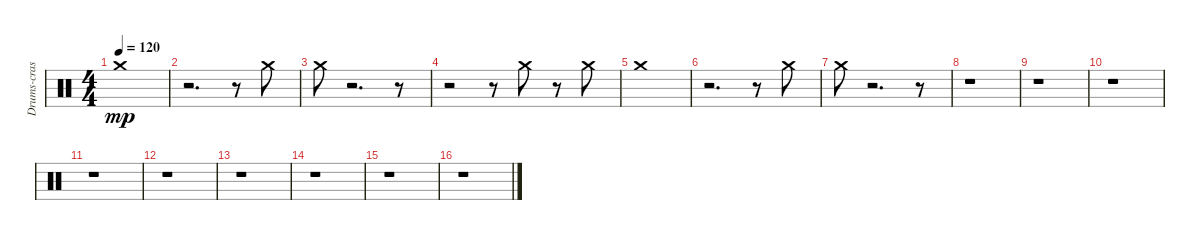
\track ("Drums-crash cymbal 2" "Drums-cras") {instrument percussion}
\staff {score}
\articulation defaults
\ts (4 4)
\tempo 120
\clef neutral
\ks c "Crash medium (hit)".1{dy mp}
|
r.2{d} r.8 "Crash medium (hit)".8 |
"Crash medium (hit)".8 r.2{d} r.8 |
r.2 r.8 "Crash medium (hit)".8 r.8 "Crash medium (hit)".8 |
"Crash medium (hit)".1 |
r.2{d} r.8 "Crash medium (hit)".8 |
"Crash medium (hit)".8 r.2{d} r.8 |
r.1 |
r.1 |
r.1 |
r.1 |
r.1 |
r.1 |
r.1 |
r.1 |
r.1
